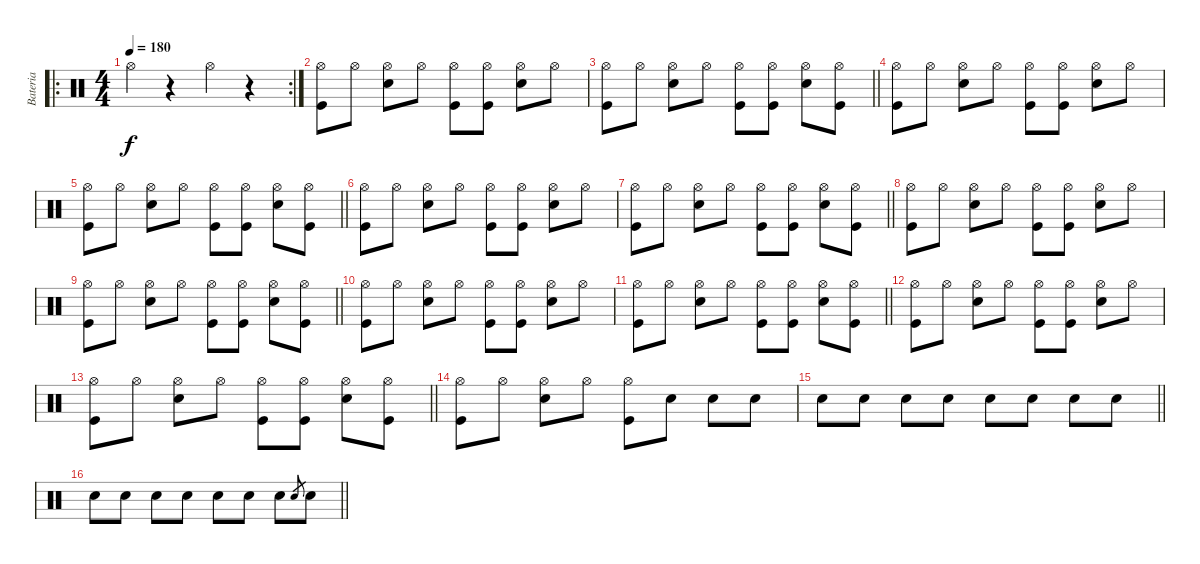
\track ("Bateria" "Bateria") {instrument percussion}
\staff {score}
\articulation defaults
\ro
\rc 2
\ts (4 4)
\tempo 180
\clef neutral
\ks c "Hi-Hat (open)".4{dy f}
r.4 "Hi-Hat (open)".4 r.4 |
("Hi-Hat (open)" "Kick (hit)").8 "Hi-Hat (open)".8 ("Hi-Hat (open)" "Snare (hit) 2").8 "Hi-Hat (open)".8 ("Hi-Hat (open)" "Kick (hit)").8 ("Hi-Hat (open)" "Kick (hit)").8 ("Hi-Hat (open)" "Snare (hit) 2").8 "Hi-Hat (open)".8 |
\barLineRight lightlight
("Hi-Hat (open)" "Kick (hit)").8 "Hi-Hat (open)".8 ("Hi-Hat (open)" "Snare (hit) 2").8 "Hi-Hat (open)".8 ("Hi-Hat (open)" "Kick (hit)").8 ("Hi-Hat (open)" "Kick (hit)").8 ("Hi-Hat (open)" "Snare (hit) 2").8 ("Hi-Hat (open)" "Kick (hit)").8 |
("Hi-Hat (open)" "Kick (hit)").8 "Hi-Hat (open)".8 ("Hi-Hat (open)" "Snare (hit) 2").8 "Hi-Hat (open)".8 ("Hi-Hat (open)" "Kick (hit)").8 ("Hi-Hat (open)" "Kick (hit)").8 ("Hi-Hat (open)" "Snare (hit) 2").8 "Hi-Hat (open)".8 |
\barLineRight lightlight
("Hi-Hat (open)" "Kick (hit)").8 "Hi-Hat (open)".8 ("Hi-Hat (open)" "Snare (hit) 2").8 "Hi-Hat (open)".8 ("Hi-Hat (open)" "Kick (hit)").8 ("Hi-Hat (open)" "Kick (hit)").8 ("Hi-Hat (open)" "Snare (hit) 2").8 ("Hi-Hat (open)" "Kick (hit)").8 |
("Hi-Hat (open)" "Kick (hit)").8 "Hi-Hat (open)".8 ("Hi-Hat (open)" "Snare (hit) 2").8 "Hi-Hat (open)".8 ("Hi-Hat (open)" "Kick (hit)").8 ("Hi-Hat (open)" "Kick (hit)").8 ("Hi-Hat (open)" "Snare (hit) 2").8 "Hi-Hat (open)".8 |
\barLineRight lightlight
("Hi-Hat (open)" "Kick (hit)").8 "Hi-Hat (open)".8 ("Hi-Hat (open)" "Snare (hit) 2").8 "Hi-Hat (open)".8 ("Hi-Hat (open)" "Kick (hit)").8 ("Hi-Hat (open)" "Kick (hit)").8 ("Hi-Hat (open)" "Snare (hit) 2").8 ("Hi-Hat (open)" "Kick (hit)").8 |
("Hi-Hat (open)" "Kick (hit)").8 "Hi-Hat (open)".8 ("Hi-Hat (open)" "Snare (hit) 2").8 "Hi-Hat (open)".8 ("Hi-Hat (open)" "Kick (hit)").8 ("Hi-Hat (open)" "Kick (hit)").8 ("Hi-Hat (open)" "Snare (hit) 2").8 "Hi-Hat (open)".8 |
\barLineRight lightlight
("Hi-Hat (open)" "Kick (hit)").8 "Hi-Hat (open)".8 ("Hi-Hat (open)" "Snare (hit) 2").8 "Hi-Hat (open)".8 ("Hi-Hat (open)" "Kick (hit)").8 ("Hi-Hat (open)" "Kick (hit)").8 ("Hi-Hat (open)" "Snare (hit) 2").8 ("Hi-Hat (open)" "Kick (hit)").8 |
("Hi-Hat (open)" "Kick (hit)").8 "Hi-Hat (open)".8 ("Hi-Hat (open)" "Snare (hit) 2").8 "Hi-Hat (open)".8 ("Hi-Hat (open)" "Kick (hit)").8 ("Hi-Hat (open)" "Kick (hit)").8 ("Hi-Hat (open)" "Snare (hit) 2").8 "Hi-Hat (open)".8 |
\barLineRight lightlight
("Hi-Hat (open)" "Kick (hit)").8 "Hi-Hat (open)".8 ("Hi-Hat (open)" "Snare (hit) 2").8 "Hi-Hat (open)".8 ("Hi-Hat (open)" "Kick (hit)").8 ("Hi-Hat (open)" "Kick (hit)").8 ("Hi-Hat (open)" "Snare (hit) 2").8 ("Hi-Hat (open)" "Kick (hit)").8 |
("Hi-Hat (open)" "Kick (hit)").8 "Hi-Hat (open)".8 ("Hi-Hat (open)" "Snare (hit) 2").8 "Hi-Hat (open)".8 ("Hi-Hat (open)" "Kick (hit)").8 ("Hi-Hat (open)" "Kick (hit)").8 ("Hi-Hat (open)" "Snare (hit) 2").8 "Hi-Hat (open)".8 |
\barLineRight lightlight
("Hi-Hat (open)" "Kick (hit)").8 "Hi-Hat (open)".8 ("Hi-Hat (open)" "Snare (hit) 2").8 "Hi-Hat (open)".8 ("Hi-Hat (open)" "Kick (hit)").8 ("Hi-Hat (open)" "Kick (hit)").8 ("Hi-Hat (open)" "Snare (hit) 2").8 ("Hi-Hat (open)" "Kick (hit)").8 |
("Hi-Hat (open)" "Kick (hit)").8 "Hi-Hat (open)".8 ("Hi-Hat (open)" "Snare (hit) 2").8 "Hi-Hat (open)".8 ("Hi-Hat (open)" "Kick (hit)").8 "Snare (hit) 2".8 "Snare (hit) 2".8 "Snare (hit) 2".8 |
\barLineRight lightlight "Snare (hit) 2".8 "Snare (hit) 2".8 "Snare (hit) 2".8 "Snare (hit) 2".8 "Snare (hit) 2".8 "Snare (hit) 2".8 "Snare (hit) 2".8 "Snare (hit) 2".8
|
\barLineRight lightlight "Snare (hit) 2".8 "Snare (hit) 2".8 "Snare (hit) 2".8 "Snare (hit) 2".8 "Snare (hit) 2".8 "Snare (hit) 2".8 "Snare (hit) 2".8 "Snare (hit) 2".8{gr} "Snare (hit) 2".8
